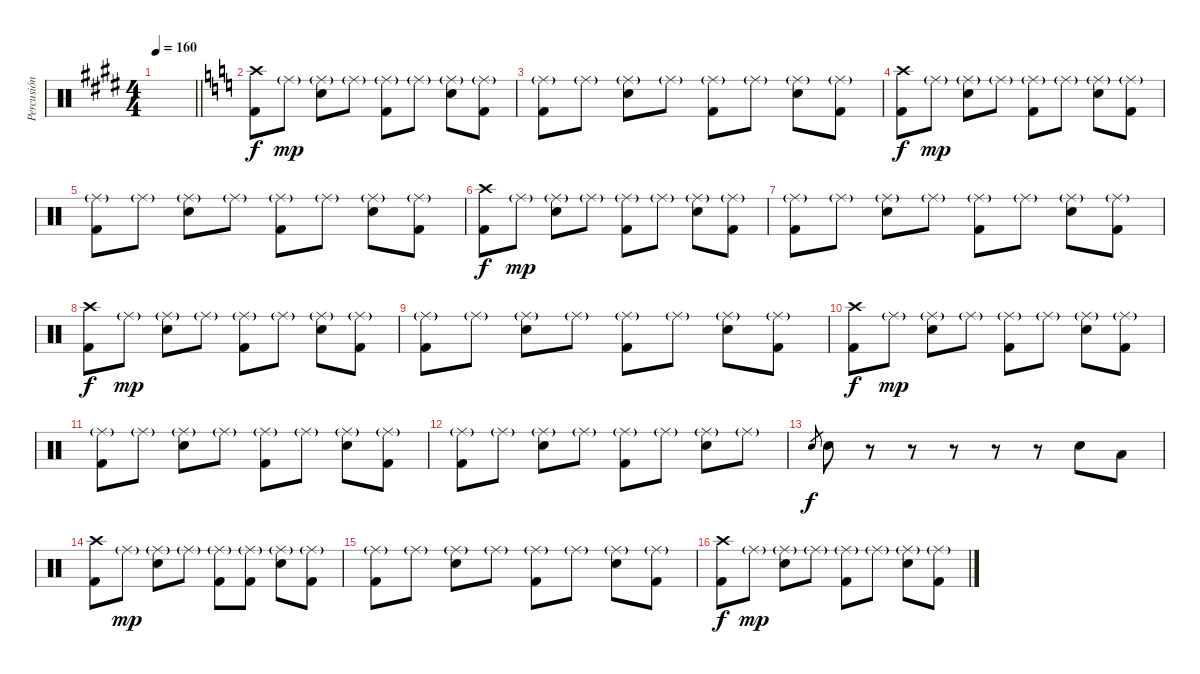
\track ("Percusión" "Percusión") {instrument percussion}
\staff {score}
\articulation defaults
\ts (4 4)
\tempo 160
\clef neutral
\barLineRight lightlight
\ks e
|
\ks c
("Crash high (hit)" "Kick (hit) 2").8 "Ride (middle)"{g}.8{dy mp} ("Ride (middle)"{g} "Electric Snare (hit)").8 "Ride (middle)"{g}.8 ("Ride (middle)"{g} "Kick (hit) 2").8 "Ride (middle)"{g}.8 ("Ride (middle)"{g} "Electric Snare (hit)").8 ("Ride (middle)"{g} "Kick (hit) 2").8 |
("Ride (middle)"{g} "Kick (hit) 2").8 "Ride (middle)"{g}.8 ("Ride (middle)"{g} "Electric Snare (hit)").8 "Ride (middle)"{g}.8 ("Ride (middle)"{g} "Kick (hit) 2").8 "Ride (middle)"{g}.8 ("Ride (middle)"{g} "Electric Snare (hit)").8 ("Ride (middle)"{g} "Kick (hit) 2").8 |
("Crash high (hit)" "Kick (hit) 2").8{dy f} "Ride (middle)"{g}.8{dy mp} ("Ride (middle)"{g} "Electric Snare (hit)").8 "Ride (middle)"{g}.8 ("Ride (middle)"{g} "Kick (hit) 2").8 "Ride (middle)"{g}.8 ("Ride (middle)"{g} "Electric Snare (hit)").8 ("Ride (middle)"{g} "Kick (hit) 2").8 |
("Ride (middle)"{g} "Kick (hit) 2").8 "Ride (middle)"{g}.8 ("Ride (middle)"{g} "Electric Snare (hit)").8 "Ride (middle)"{g}.8 ("Ride (middle)"{g} "Kick (hit) 2").8 "Ride (middle)"{g}.8 ("Ride (middle)"{g} "Electric Snare (hit)").8 ("Ride (middle)"{g} "Kick (hit) 2").8 |
("Crash high (hit)" "Kick (hit) 2").8{dy f} "Ride (middle)"{g}.8{dy mp} ("Ride (middle)"{g} "Electric Snare (hit)").8 "Ride (middle)"{g}.8 ("Ride (middle)"{g} "Kick (hit) 2").8 "Ride (middle)"{g}.8 ("Ride (middle)"{g} "Electric Snare (hit)").8 ("Ride (middle)"{g} "Kick (hit) 2").8 |
("Ride (middle)"{g} "Kick (hit) 2").8 "Ride (middle)"{g}.8 ("Ride (middle)"{g} "Electric Snare (hit)").8 "Ride (middle)"{g}.8 ("Ride (middle)"{g} "Kick (hit) 2").8 "Ride (middle)"{g}.8 ("Ride (middle)"{g} "Electric Snare (hit)").8 ("Ride (middle)"{g} "Kick (hit) 2").8 |
("Crash high (hit)" "Kick (hit) 2").8{dy f} "Ride (middle)"{g}.8{dy mp} ("Ride (middle)"{g} "Electric Snare (hit)").8 "Ride (middle)"{g}.8 ("Ride (middle)"{g} "Kick (hit) 2").8 "Ride (middle)"{g}.8 ("Ride (middle)"{g} "Electric Snare (hit)").8 ("Ride (middle)"{g} "Kick (hit) 2").8 |
("Ride (middle)"{g} "Kick (hit) 2").8 "Ride (middle)"{g}.8 ("Ride (middle)"{g} "Electric Snare (hit)").8 "Ride (middle)"{g}.8 ("Ride (middle)"{g} "Kick (hit) 2").8 "Ride (middle)"{g}.8 ("Ride (middle)"{g} "Electric Snare (hit)").8 ("Ride (middle)"{g} "Kick (hit) 2").8 |
("Crash high (hit)" "Kick (hit) 2").8{dy f} "Ride (middle)"{g}.8{dy mp} ("Ride (middle)"{g} "Electric Snare (hit)").8 "Ride (middle)"{g}.8 ("Ride (middle)"{g} "Kick (hit) 2").8 "Ride (middle)"{g}.8 ("Ride (middle)"{g} "Electric Snare (hit)").8 ("Ride (middle)"{g} "Kick (hit) 2").8 |
("Ride (middle)"{g} "Kick (hit) 2").8 "Ride (middle)"{g}.8 ("Ride (middle)"{g} "Electric Snare (hit)").8 "Ride (middle)"{g}.8 ("Ride (middle)"{g} "Kick (hit) 2").8 "Ride (middle)"{g}.8 ("Ride (middle)"{g} "Electric Snare (hit)").8 ("Ride (middle)"{g} "Kick (hit) 2").8 |
("Ride (middle)"{g} "Kick (hit) 2").8 "Ride (middle)"{g}.8 ("Ride (middle)"{g} "Electric Snare (hit)").8 "Ride (middle)"{g}.8 ("Ride (middle)"{g} "Kick (hit) 2").8 "Ride (middle)"{g}.8 ("Ride (middle)"{g} "Electric Snare (hit)").8 "Ride (middle)"{g}.8 |
"Electric Snare (hit)".8{gr dy f} "Electric Snare (hit)".8 r.8 r.8 r.8 r.8 r.8 "Electric Snare (hit)".8 "Low Tom (hit)".8 |
("Crash high (hit)" "Kick (hit) 2").8 "Ride (middle)"{g}.8{dy mp} ("Ride (middle)"{g} "Electric Snare (hit)").8 "Ride (middle)"{g}.8 ("Ride (middle)"{g} "Kick (hit) 2").8 ("Ride (middle)"{g} "Kick (hit) 2").8 ("Ride (middle)"{g} "Electric Snare (hit)").8 ("Ride (middle)"{g} "Kick (hit) 2").8 |
("Ride (middle)"{g} "Kick (hit) 2").8 "Ride (middle)"{g}.8 ("Ride (middle)"{g} "Electric Snare (hit)").8 "Ride (middle)"{g}.8 ("Ride (middle)"{g} "Kick (hit) 2").8 "Ride (middle)"{g}.8 ("Ride (middle)"{g} "Electric Snare (hit)").8 ("Ride (middle)"{g} "Kick (hit) 2").8 |
("Crash high (hit)" "Kick (hit) 2").8{dy f} "Ride (middle)"{g}.8{dy mp} ("Ride (middle)"{g} "Electric Snare (hit)").8 "Ride (middle)"{g}.8 ("Ride (middle)"{g} "Kick (hit) 2").8 "Ride (middle)"{g}.8 ("Ride (middle)"{g} "Electric Snare (hit)").8 ("Ride (middle)"{g} "Kick (hit) 2").8
